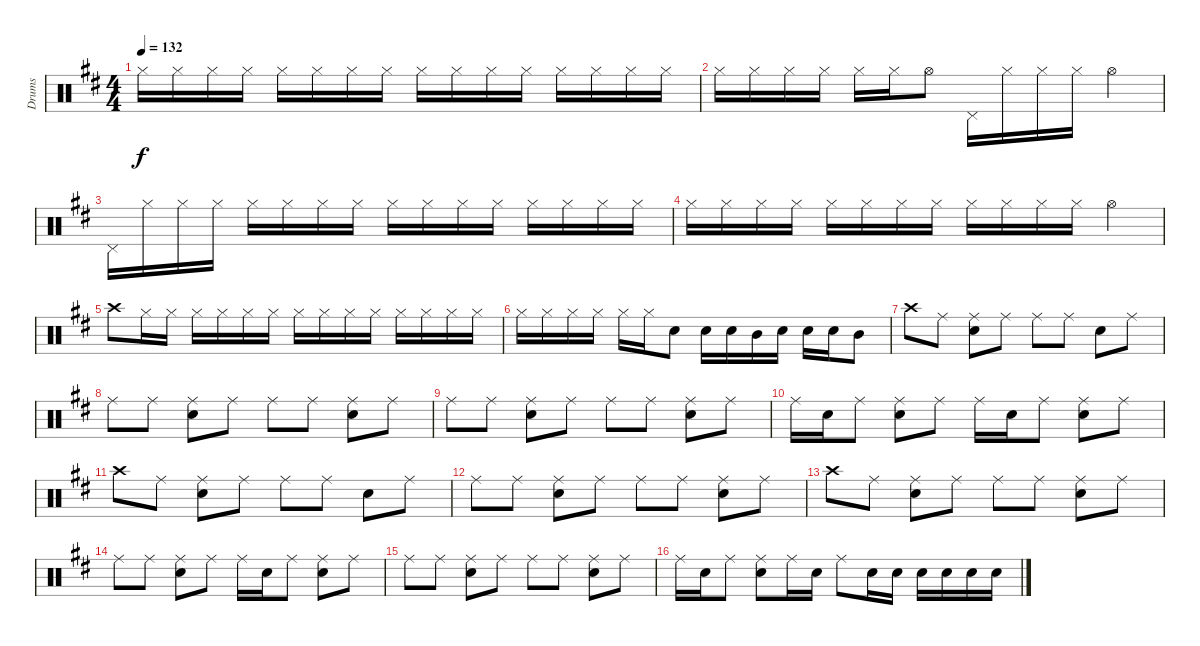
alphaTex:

\track ("Drums" "Drums") {instrument percussion}
\staff {score}
\articulation defaults
\ts (4 4)
\tempo 132
\clef neutral
\ks d "Hi-Hat (closed)".16{dy f} "Hi-Hat (closed)".16 "Hi-Hat (closed)".16 "Hi-Hat (closed)".16 "Hi-Hat (closed)".16 "Hi-Hat (closed)".16 "Hi-Hat (closed)".16 "Hi-Hat (closed)".16 "Hi-Hat (closed)".16 "Hi-Hat (closed)".16 "Hi-Hat (closed)".16 "Hi-Hat (closed)".16 "Hi-Hat (closed)".16 "Hi-Hat (closed)".16 "Hi-Hat (closed)".16 "Hi-Hat (closed)".16
|
"Hi-Hat (closed)".16 "Hi-Hat (closed)".16 "Hi-Hat (closed)".16 "Hi-Hat (closed)".16 "Hi-Hat (closed)".16 "Hi-Hat (closed)".16 "Hi-Hat (open)".8 "Pedal Hi-Hat (hit)".16 "Hi-Hat (closed)".16 "Hi-Hat (closed)".16 "Hi-Hat (closed)".16 "Hi-Hat (open)".4 |
"Pedal Hi-Hat (hit)".16 "Hi-Hat (closed)".16 "Hi-Hat (closed)".16 "Hi-Hat (closed)".16 "Hi-Hat (closed)".16 "Hi-Hat (closed)".16 "Hi-Hat (closed)".16 "Hi-Hat (closed)".16 "Hi-Hat (closed)".16 "Hi-Hat (closed)".16 "Hi-Hat (closed)".16 "Hi-Hat (closed)".16 "Hi-Hat (closed)".16 "Hi-Hat (closed)".16 "Hi-Hat (closed)".16 "Hi-Hat (closed)".16 |
"Hi-Hat (closed)".16 "Hi-Hat (closed)".16 "Hi-Hat (closed)".16 "Hi-Hat (closed)".16 "Hi-Hat (closed)".16 "Hi-Hat (closed)".16 "Hi-Hat (closed)".16 "Hi-Hat (closed)".16 "Hi-Hat (closed)".16 "Hi-Hat (closed)".16 "Hi-Hat (closed)".16 "Hi-Hat (closed)".16 "Hi-Hat (open)".4 |
"Crash high (hit)".8 "Hi-Hat (closed)".16 "Hi-Hat (closed)".16 "Hi-Hat (closed)".16 "Hi-Hat (closed)".16 "Hi-Hat (closed)".16 "Hi-Hat (closed)".16 "Hi-Hat (closed)".16 "Hi-Hat (closed)".16 "Hi-Hat (closed)".16 "Hi-Hat (closed)".16 "Hi-Hat (closed)".16 "Hi-Hat (closed)".16 "Hi-Hat (closed)".16 "Hi-Hat (closed)".16 |
"Hi-Hat (closed)".16 "Hi-Hat (closed)".16 "Hi-Hat (closed)".16 "Hi-Hat (closed)".16 "Hi-Hat (closed)".16 "Hi-Hat (closed)".16 "Snare (hit) 2".8 "Snare (hit) 2".16 "Snare (hit) 2".16 "Mid Tom (hit)".16 "Snare (hit) 2".16 "Snare (hit) 2".16 "Snare (hit) 2".16 "Mid Tom (hit)".8 |
"Crash high (hit)".8 "Ride (middle)".8 ("Ride (middle)" "Snare (hit) 2").8 "Ride (middle)".8 "Ride (middle)".8 "Ride (middle)".8 "Snare (hit) 2".8 "Ride (middle)".8 |
"Ride (middle)".8 "Ride (middle)".8 ("Ride (middle)" "Snare (hit) 2").8 "Ride (middle)".8 "Ride (middle)".8 "Ride (middle)".8 ("Ride (middle)" "Snare (hit) 2").8 "Ride (middle)".8 |
"Ride (middle)".8 "Ride (middle)".8 ("Ride (middle)" "Snare (hit) 2").8 "Ride (middle)".8 "Ride (middle)".8 "Ride (middle)".8 ("Ride (middle)" "Snare (hit) 2").8 "Ride (middle)".8 |
"Ride (middle)".16 "Snare (hit) 2".16 "Ride (middle)".8 ("Ride (middle)" "Snare (hit) 2").8 "Ride (middle)".8 "Ride (middle)".16 "Snare (hit) 2".16 "Ride (middle)".8 ("Ride (middle)" "Snare (hit) 2").8 "Ride (middle)".8 |
"Crash high (hit)".8 "Ride (middle)".8 ("Ride (middle)" "Snare (hit) 2").8 "Ride (middle)".8 "Ride (middle)".8 "Ride (middle)".8 "Snare (hit) 2".8 "Ride (middle)".8 |
"Ride (middle)".8 "Ride (middle)".8 ("Ride (middle)" "Snare (hit) 2").8 "Ride (middle)".8 "Ride (middle)".8 "Ride (middle)".8 ("Ride (middle)" "Snare (hit) 2").8 "Ride (middle)".8 |
"Crash high (hit)".8 "Ride (middle)".8 ("Ride (middle)" "Snare (hit) 2").8 "Ride (middle)".8 "Ride (middle)".8 "Ride (middle)".8 ("Ride (middle)" "Snare (hit) 2").8 "Ride (middle)".8 |
"Ride (middle)".8 "Ride (middle)".8 ("Ride (middle)" "Snare (hit) 2").8 "Ride (middle)".8 "Ride (middle)".16 "Snare (hit) 2".16 "Ride (middle)".8 ("Ride (middle)" "Snare (hit) 2").8 "Ride (middle)".8 |
"Ride (middle)".8 "Ride (middle)".8 ("Ride (middle)" "Snare (hit) 2").8 "Ride (middle)".8 "Ride (middle)".8 "Ride (middle)".8 ("Ride (middle)" "Snare (hit) 2").8 "Ride (middle)".8 |
"Ride (middle)".16 "Snare (hit) 2".16 "Ride (middle)".8 ("Ride (middle)" "Snare (hit) 2").8 "Ride (middle)".16 "Snare (hit) 2".16 "Ride (middle)".8 "Snare (hit) 2".16 "Snare (hit) 2".16 "Snare (hit) 2".16 "Snare (hit) 2".16 "Snare (hit) 2".16 "Snare (hit) 2".16
